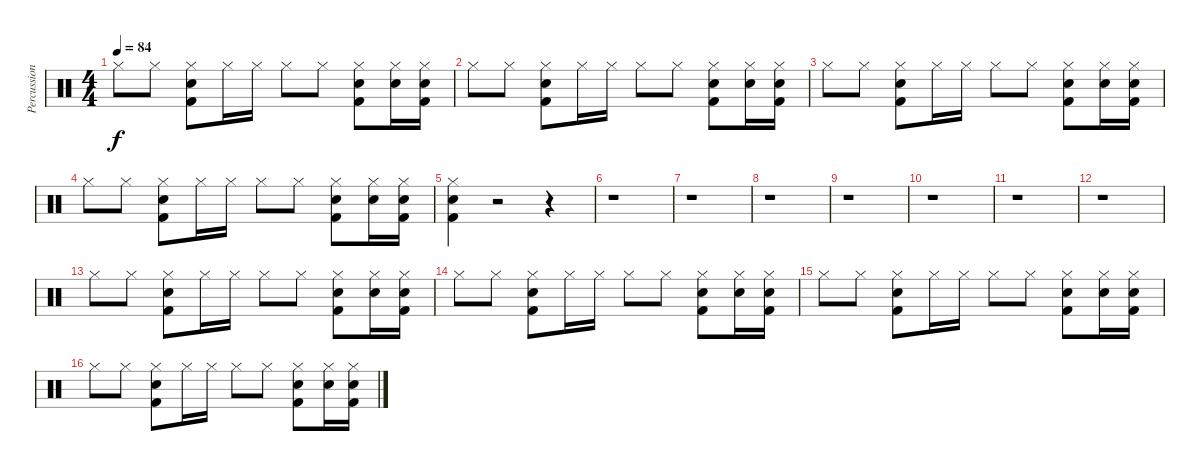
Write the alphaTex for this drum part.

\track ("Percussion" "Percussion") {instrument percussion}
\staff {score}
\articulation defaults
\ts (4 4)
\tempo 84
\clef neutral
\ks c "Hi-Hat (closed)".8{dy f} "Hi-Hat (closed)".8
("Hi-Hat (closed)" "Snare (hit) 2" "Kick (hit) 2").8 "Hi-Hat (closed)".16 "Hi-Hat (closed)".16 "Hi-Hat (closed)".8 "Hi-Hat (closed)".8 ("Hi-Hat (closed)" "Snare (hit) 2" "Kick (hit) 2").8 ("Hi-Hat (closed)" "Snare (hit) 2").16 ("Hi-Hat (closed)" "Snare (hit) 2" "Kick (hit) 2").16 |
"Hi-Hat (closed)".8 "Hi-Hat (closed)".8 ("Hi-Hat (closed)" "Snare (hit) 2" "Kick (hit) 2").8 "Hi-Hat (closed)".16 "Hi-Hat (closed)".16 "Hi-Hat (closed)".8 "Hi-Hat (closed)".8 ("Hi-Hat (closed)" "Snare (hit) 2" "Kick (hit) 2").8 ("Hi-Hat (closed)" "Snare (hit) 2").16 ("Hi-Hat (closed)" "Snare (hit) 2" "Kick (hit) 2").16 |
"Hi-Hat (closed)".8 "Hi-Hat (closed)".8 ("Hi-Hat (closed)" "Snare (hit) 2" "Kick (hit) 2").8 "Hi-Hat (closed)".16 "Hi-Hat (closed)".16 "Hi-Hat (closed)".8 "Hi-Hat (closed)".8 ("Hi-Hat (closed)" "Snare (hit) 2" "Kick (hit) 2").8 ("Hi-Hat (closed)" "Snare (hit) 2").16 ("Hi-Hat (closed)" "Snare (hit) 2" "Kick (hit) 2").16 |
"Hi-Hat (closed)".8 "Hi-Hat (closed)".8 ("Hi-Hat (closed)" "Snare (hit) 2" "Kick (hit) 2").8 "Hi-Hat (closed)".16 "Hi-Hat (closed)".16 "Hi-Hat (closed)".8 "Hi-Hat (closed)".8 ("Hi-Hat (closed)" "Snare (hit) 2" "Kick (hit) 2").8 ("Hi-Hat (closed)" "Snare (hit) 2").16 ("Hi-Hat (closed)" "Snare (hit) 2" "Kick (hit) 2").16 |
("Hi-Hat (closed)" "Snare (hit) 2" "Kick (hit) 2").4 r.2 r.4 |
r.1 |
r.1 |
r.1 |
r.1 |
r.1 |
r.1 |
r.1 |
"Hi-Hat (closed)".8 "Hi-Hat (closed)".8 ("Hi-Hat (closed)" "Snare (hit) 2" "Kick (hit) 2").8 "Hi-Hat (closed)".16 "Hi-Hat (closed)".16 "Hi-Hat (closed)".8 "Hi-Hat (closed)".8 ("Hi-Hat (closed)" "Snare (hit) 2" "Kick (hit) 2").8 ("Hi-Hat (closed)" "Snare (hit) 2").16 ("Hi-Hat (closed)" "Snare (hit) 2" "Kick (hit) 2").16 |
"Hi-Hat (closed)".8 "Hi-Hat (closed)".8 ("Hi-Hat (closed)" "Snare (hit) 2" "Kick (hit) 2").8 "Hi-Hat (closed)".16 "Hi-Hat (closed)".16 "Hi-Hat (closed)".8 "Hi-Hat (closed)".8 ("Hi-Hat (closed)" "Snare (hit) 2" "Kick (hit) 2").8 ("Hi-Hat (closed)" "Snare (hit) 2").16 ("Hi-Hat (closed)" "Snare (hit) 2" "Kick (hit) 2").16 |
"Hi-Hat (closed)".8 "Hi-Hat (closed)".8 ("Hi-Hat (closed)" "Snare (hit) 2" "Kick (hit) 2").8 "Hi-Hat (closed)".16 "Hi-Hat (closed)".16 "Hi-Hat (closed)".8 "Hi-Hat (closed)".8 ("Hi-Hat (closed)" "Snare (hit) 2" "Kick (hit) 2").8 ("Hi-Hat (closed)" "Snare (hit) 2").16 ("Hi-Hat (closed)" "Snare (hit) 2" "Kick (hit) 2").16 |
"Hi-Hat (closed)".8 "Hi-Hat (closed)".8 ("Hi-Hat (closed)" "Snare (hit) 2" "Kick (hit) 2").8 "Hi-Hat (closed)".16 "Hi-Hat (closed)".16 "Hi-Hat (closed)".8 "Hi-Hat (closed)".8 ("Hi-Hat (closed)" "Snare (hit) 2" "Kick (hit) 2").8 ("Hi-Hat (closed)" "Snare (hit) 2").16 ("Hi-Hat (closed)" "Snare (hit) 2" "Kick (hit) 2").16
